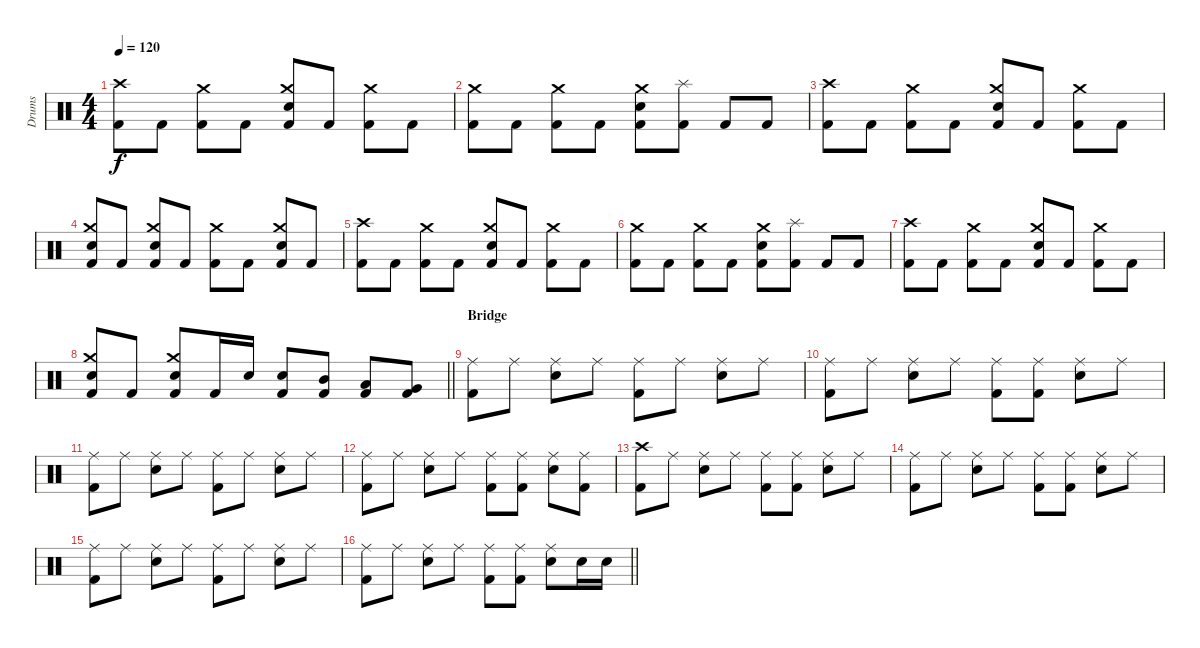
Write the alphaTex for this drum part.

\track ("Drums" "Drums") {instrument percussion}
\staff {score}
\articulation defaults
\ts (4 4)
\tempo 120
\clef neutral
\ks c
("Crash high (hit)" "Kick (hit) 2").8{dy f} "Kick (hit) 2".8 ("Crash medium (hit)" "Kick (hit) 2").8 "Kick (hit) 2".8 ("Crash medium (hit)" "Electric Snare (hit)" "Kick (hit) 2").8 "Kick (hit) 2".8 ("Crash medium (hit)" "Kick (hit) 2").8 "Kick (hit) 2".8 |
("Crash medium (hit)" "Kick (hit) 2").8 "Kick (hit) 2".8 ("Crash medium (hit)" "Kick (hit) 2").8 "Kick (hit) 2".8 ("Crash medium (hit)" "Electric Snare (hit)" "Kick (hit) 2").8 ("Splash (hit)" "Kick (hit) 2").8 "Kick (hit) 2".8 "Kick (hit) 2".8 |
("Crash high (hit)" "Kick (hit) 2").8 "Kick (hit) 2".8 ("Crash medium (hit)" "Kick (hit) 2").8 "Kick (hit) 2".8 ("Crash medium (hit)" "Electric Snare (hit)" "Kick (hit) 2").8 "Kick (hit) 2".8 ("Crash medium (hit)" "Kick (hit) 2").8 "Kick (hit) 2".8 |
("Crash medium (hit)" "Electric Snare (hit)" "Kick (hit) 2").8 "Kick (hit) 2".8 ("Crash medium (hit)" "Electric Snare (hit)" "Kick (hit) 2").8 "Kick (hit) 2".8 ("Crash medium (hit)" "Kick (hit) 2").8 "Kick (hit) 2".8 ("Crash medium (hit)" "Electric Snare (hit)" "Kick (hit) 2").8 "Kick (hit) 2".8 |
("Crash high (hit)" "Kick (hit) 2").8 "Kick (hit) 2".8 ("Crash medium (hit)" "Kick (hit) 2").8 "Kick (hit) 2".8 ("Crash medium (hit)" "Electric Snare (hit)" "Kick (hit) 2").8 "Kick (hit) 2".8 ("Crash medium (hit)" "Kick (hit) 2").8 "Kick (hit) 2".8 |
("Crash medium (hit)" "Kick (hit) 2").8 "Kick (hit) 2".8 ("Crash medium (hit)" "Kick (hit) 2").8 "Kick (hit) 2".8 ("Crash medium (hit)" "Electric Snare (hit)" "Kick (hit) 2").8 ("Splash (hit)" "Kick (hit) 2").8 "Kick (hit) 2".8 "Kick (hit) 2".8 |
("Crash high (hit)" "Kick (hit) 2").8 "Kick (hit) 2".8 ("Crash medium (hit)" "Kick (hit) 2").8 "Kick (hit) 2".8 ("Crash medium (hit)" "Electric Snare (hit)" "Kick (hit) 2").8 "Kick (hit) 2".8 ("Crash medium (hit)" "Kick (hit) 2").8 "Kick (hit) 2".8 |
\barLineRight lightlight
("Crash medium (hit)" "Electric Snare (hit)" "Kick (hit) 2").8 "Kick (hit) 2".8 ("Crash medium (hit)" "Electric Snare (hit)" "Kick (hit) 2").8 "Kick (hit) 2".16 "Electric Snare (hit)".16 ("Electric Snare (hit)" "Kick (hit) 2").8 ("Mid Tom (hit)" "Kick (hit) 2").8 ("Low Tom (hit)" "Kick (hit) 2").8 ("Very Low Tom (hit)" "Kick (hit) 2").8 |
\section ("" "Bridge")
("Ride (middle)" "Kick (hit) 2").8 "Ride (middle)".8 ("Ride (middle)" "Electric Snare (hit)").8 "Ride (middle)".8 ("Ride (middle)" "Kick (hit) 2").8 "Ride (middle)".8 ("Ride (middle)" "Electric Snare (hit)").8 "Ride (middle)".8 |
("Ride (middle)" "Kick (hit) 2").8 "Ride (middle)".8 ("Ride (middle)" "Electric Snare (hit)").8 "Ride (middle)".8 ("Ride (middle)" "Kick (hit) 2").8 ("Ride (middle)" "Kick (hit) 2").8 ("Ride (middle)" "Electric Snare (hit)").8 "Ride (middle)".8 |
("Ride (middle)" "Kick (hit) 2").8 "Ride (middle)".8 ("Ride (middle)" "Electric Snare (hit)").8 "Ride (middle)".8 ("Ride (middle)" "Kick (hit) 2").8 "Ride (middle)".8 ("Ride (middle)" "Electric Snare (hit)").8 "Ride (middle)".8 |
("Ride (middle)" "Kick (hit) 2").8 "Ride (middle)".8 ("Ride (middle)" "Electric Snare (hit)").8 "Ride (middle)".8 ("Ride (middle)" "Kick (hit) 2").8 ("Ride (middle)" "Kick (hit) 2").8 ("Ride (middle)" "Electric Snare (hit)").8 ("Ride (middle)" "Kick (hit) 2").8 |
("Crash high (hit)" "Kick (hit) 2").8 "Ride (middle)".8 ("Ride (middle)" "Electric Snare (hit)").8 "Ride (middle)".8 ("Ride (middle)" "Kick (hit) 2").8 ("Ride (middle)" "Kick (hit) 2").8 ("Ride (middle)" "Electric Snare (hit)").8 "Ride (middle)".8 |
("Ride (middle)" "Kick (hit) 2").8 "Ride (middle)".8 ("Ride (middle)" "Electric Snare (hit)").8 "Ride (middle)".8 ("Ride (middle)" "Kick (hit) 2").8 ("Ride (middle)" "Kick (hit) 2").8 ("Ride (middle)" "Electric Snare (hit)").8 "Ride (middle)".8 |
("Ride (middle)" "Kick (hit) 2").8 "Ride (middle)".8 ("Ride (middle)" "Electric Snare (hit)").8 "Ride (middle)".8 ("Ride (middle)" "Kick (hit) 2").8 "Ride (middle)".8 ("Ride (middle)" "Electric Snare (hit)").8 "Ride (middle)".8 |
\barLineRight lightlight
("Ride (middle)" "Kick (hit) 2").8 "Ride (middle)".8 ("Ride (middle)" "Electric Snare (hit)").8 "Ride (middle)".8 ("Ride (middle)" "Kick (hit) 2").8 ("Ride (middle)" "Kick (hit) 2").8 ("Ride (middle)" "Electric Snare (hit)").8 "Electric Snare (hit)".16 "Electric Snare (hit)".16
